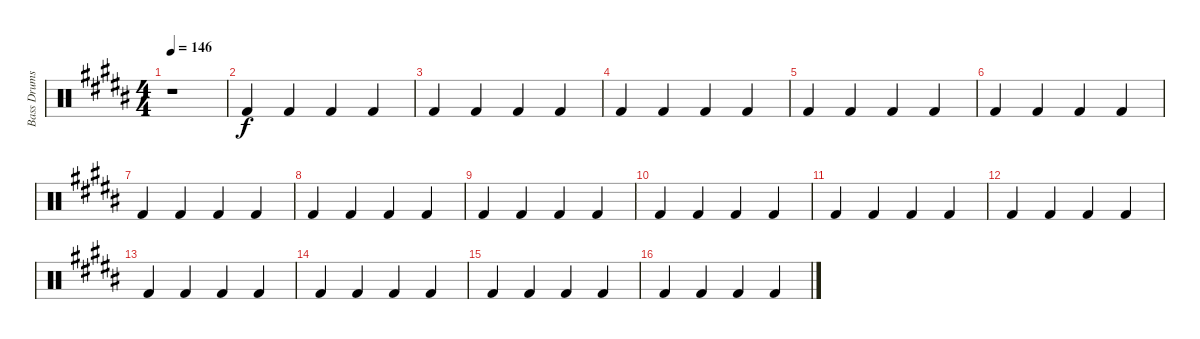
\track ("Bass Drums" "Bass Drums") {instrument percussion}
\staff {score}
\articulation defaults
\ts (4 4)
\tempo 146
\clef neutral
\ks b
r.1{dy f} |
"Kick (hit) 2".4 "Kick (hit) 2".4 "Kick (hit) 2".4 "Kick (hit) 2".4 |
"Kick (hit) 2".4 "Kick (hit) 2".4 "Kick (hit) 2".4 "Kick (hit) 2".4 |
"Kick (hit) 2".4 "Kick (hit) 2".4 "Kick (hit) 2".4 "Kick (hit) 2".4 |
"Kick (hit) 2".4 "Kick (hit) 2".4 "Kick (hit) 2".4 "Kick (hit) 2".4 |
"Kick (hit) 2".4 "Kick (hit) 2".4 "Kick (hit) 2".4 "Kick (hit) 2".4 |
"Kick (hit) 2".4 "Kick (hit) 2".4 "Kick (hit) 2".4 "Kick (hit) 2".4 |
"Kick (hit) 2".4 "Kick (hit) 2".4 "Kick (hit) 2".4 "Kick (hit) 2".4 |
"Kick (hit) 2".4 "Kick (hit) 2".4 "Kick (hit) 2".4 "Kick (hit) 2".4 |
"Kick (hit) 2".4 "Kick (hit) 2".4 "Kick (hit) 2".4 "Kick (hit) 2".4 |
"Kick (hit) 2".4 "Kick (hit) 2".4 "Kick (hit) 2".4 "Kick (hit) 2".4 |
"Kick (hit) 2".4 "Kick (hit) 2".4 "Kick (hit) 2".4 "Kick (hit) 2".4 |
"Kick (hit) 2".4 "Kick (hit) 2".4 "Kick (hit) 2".4 "Kick (hit) 2".4 |
"Kick (hit) 2".4 "Kick (hit) 2".4 "Kick (hit) 2".4 "Kick (hit) 2".4 |
"Kick (hit) 2".4 "Kick (hit) 2".4 "Kick (hit) 2".4 "Kick (hit) 2".4 |
"Kick (hit) 2".4 "Kick (hit) 2".4 "Kick (hit) 2".4 "Kick (hit) 2".4
